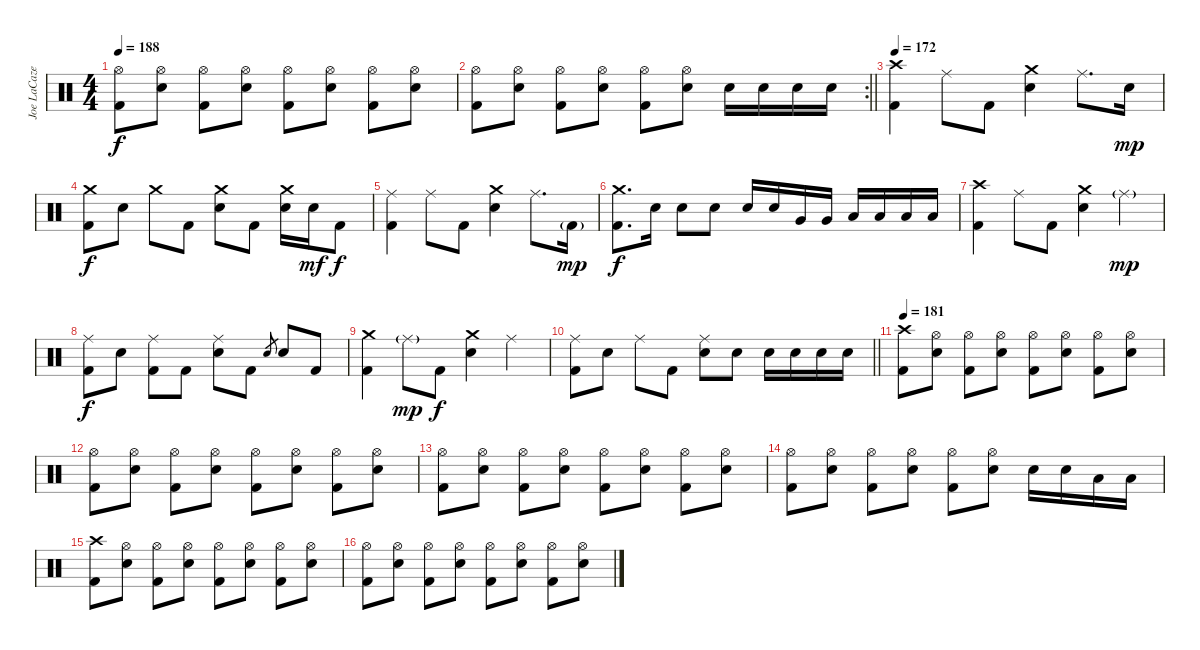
\track ("Joe LaCaze" "Joe LaCaze") {instrument percussion}
\staff {score}
\articulation defaults
\ts (4 4)
\tempo 188
\clef neutral
\ks c
("Hi-Hat (open)" "Kick (hit) 2").8{dy f} ("Hi-Hat (open)" "Electric Snare (hit)").8 ("Hi-Hat (open)" "Kick (hit) 2").8 ("Hi-Hat (open)" "Electric Snare (hit)").8 ("Hi-Hat (open)" "Kick (hit) 2").8 ("Hi-Hat (open)" "Electric Snare (hit)").8 ("Hi-Hat (open)" "Kick (hit) 2").8 ("Hi-Hat (open)" "Electric Snare (hit)").8 |
\rc 2
\barLineRight lightlight
("Hi-Hat (open)" "Kick (hit) 2").8 ("Hi-Hat (open)" "Electric Snare (hit)").8 ("Hi-Hat (open)" "Kick (hit) 2").8 ("Hi-Hat (open)" "Electric Snare (hit)").8 ("Hi-Hat (open)" "Kick (hit) 2").8 ("Hi-Hat (open)" "Electric Snare (hit)").8 "Electric Snare (hit)".16 "Electric Snare (hit)".16 "Electric Snare (hit)".16 "Electric Snare (hit)".16 |
\section ("" "")
\tempo 172
("Crash high (hit)" "Kick (hit) 2").4 "Ride (middle)".8 "Kick (hit) 2".8 ("Crash medium (hit)" "Electric Snare (hit)").4 "Ride (middle)".8{d} "Electric Snare (hit)".16{dy mp} |
("Crash medium (hit)" "Kick (hit) 2").8{dy f} "Electric Snare (hit)".8 "Crash medium (hit)".8 "Kick (hit) 2".8 ("Crash medium (hit)" "Electric Snare (hit)").8 "Kick (hit) 2".8 ("Crash medium (hit)" "Electric Snare (hit)").16 "Electric Snare (hit)".16{dy mf} "Kick (hit) 2".8{dy f} |
("Ride (middle)" "Kick (hit) 2").4 "Ride (middle)".8 "Kick (hit) 2".8 ("Crash medium (hit)" "Electric Snare (hit)").4 "Ride (middle)".8{d} "Kick (hit) 2"{g}.16{dy mp} |
("Crash medium (hit)" "Kick (hit) 2").8{d dy f} "Electric Snare (hit)".16 "Electric Snare (hit)".8 "Electric Snare (hit)".8 "Electric Snare (hit)".16 "Electric Snare (hit)".16 "Very Low Tom (hit)".16 "Very Low Tom (hit)".16 "Low Floor Tom (hit)".16 "Low Floor Tom (hit)".16 "Low Floor Tom (hit)".16 "Low Floor Tom (hit)".16 |
("Crash high (hit)" "Kick (hit) 2").4 "Ride (middle)".8 "Kick (hit) 2".8 ("Crash medium (hit)" "Electric Snare (hit)").4 "Ride (middle)"{g}.4{dy mp} |
("Ride (middle)" "Kick (hit) 2").8{dy f} "Electric Snare (hit)".8 ("Ride (middle)" "Kick (hit) 2").8 "Kick (hit) 2".8 ("Ride (middle)" "Electric Snare (hit)").8 "Kick (hit) 2".8 "Electric Snare (hit)".8{gr} "Electric Snare (hit)".8 "Kick (hit) 2".8 |
("Crash medium (hit)" "Kick (hit) 2").4 "Ride (middle)"{g}.8{dy mp} "Kick (hit) 2".8{dy f} ("Crash medium (hit)" "Electric Snare (hit)").4 "Ride (middle)".4 |
\barLineRight lightlight
("Ride (middle)" "Kick (hit) 2").8 "Electric Snare (hit)".8 "Ride (middle)".8 "Kick (hit) 2".8 ("Ride (middle)" "Electric Snare (hit)").8 "Electric Snare (hit)".8 "Electric Snare (hit)".16 "Electric Snare (hit)".16 "Electric Snare (hit)".16 "Electric Snare (hit)".16 |
\section ("" "")
\tempo 181
("Crash high (hit)" "Kick (hit) 2").8 ("Hi-Hat (open)" "Electric Snare (hit)").8 ("Hi-Hat (open)" "Kick (hit) 2").8 ("Hi-Hat (open)" "Electric Snare (hit)").8 ("Hi-Hat (open)" "Kick (hit) 2").8 ("Hi-Hat (open)" "Electric Snare (hit)").8 ("Hi-Hat (open)" "Kick (hit) 2").8 ("Hi-Hat (open)" "Electric Snare (hit)").8 |
("Hi-Hat (open)" "Kick (hit) 2").8 ("Hi-Hat (open)" "Electric Snare (hit)").8 ("Hi-Hat (open)" "Kick (hit) 2").8 ("Hi-Hat (open)" "Electric Snare (hit)").8 ("Hi-Hat (open)" "Kick (hit) 2").8 ("Hi-Hat (open)" "Electric Snare (hit)").8 ("Hi-Hat (open)" "Kick (hit) 2").8 ("Hi-Hat (open)" "Electric Snare (hit)").8 |
("Hi-Hat (open)" "Kick (hit) 2").8 ("Hi-Hat (open)" "Electric Snare (hit)").8 ("Hi-Hat (open)" "Kick (hit) 2").8 ("Hi-Hat (open)" "Electric Snare (hit)").8 ("Hi-Hat (open)" "Kick (hit) 2").8 ("Hi-Hat (open)" "Electric Snare (hit)").8 ("Hi-Hat (open)" "Kick (hit) 2").8 ("Hi-Hat (open)" "Electric Snare (hit)").8 |
("Hi-Hat (open)" "Kick (hit) 2").8 ("Hi-Hat (open)" "Electric Snare (hit)").8 ("Hi-Hat (open)" "Kick (hit) 2").8 ("Hi-Hat (open)" "Electric Snare (hit)").8 ("Hi-Hat (open)" "Kick (hit) 2").8 ("Hi-Hat (open)" "Electric Snare (hit)").8 "Electric Snare (hit)".16 "Electric Snare (hit)".16 "Low Tom (hit)".16 "Low Tom (hit)".16 |
("Crash high (hit)" "Kick (hit) 2").8 ("Hi-Hat (open)" "Electric Snare (hit)").8 ("Hi-Hat (open)" "Kick (hit) 2").8 ("Hi-Hat (open)" "Electric Snare (hit)").8 ("Hi-Hat (open)" "Kick (hit) 2").8 ("Hi-Hat (open)" "Electric Snare (hit)").8 ("Hi-Hat (open)" "Kick (hit) 2").8 ("Hi-Hat (open)" "Electric Snare (hit)").8 |
("Hi-Hat (open)" "Kick (hit) 2").8 ("Hi-Hat (open)" "Electric Snare (hit)").8 ("Hi-Hat (open)" "Kick (hit) 2").8 ("Hi-Hat (open)" "Electric Snare (hit)").8 ("Hi-Hat (open)" "Kick (hit) 2").8 ("Hi-Hat (open)" "Electric Snare (hit)").8 ("Hi-Hat (open)" "Kick (hit) 2").8 ("Hi-Hat (open)" "Electric Snare (hit)").8
